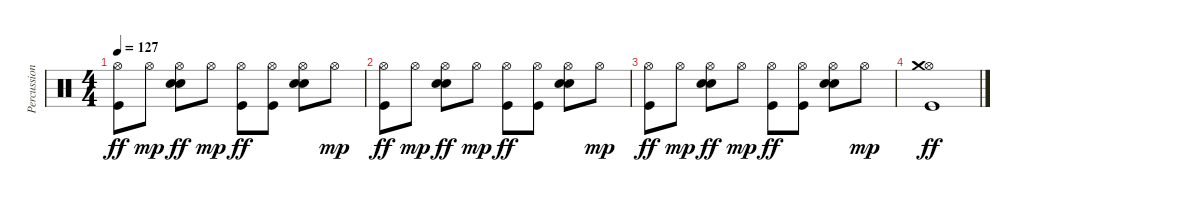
\track ("Percussions" "Percussion") {instrument percussion}
\staff {score}
\articulation defaults
\ts (4 4)
\tempo 127
\clef neutral
\ks c
("Hi-Hat (open)" "Kick (hit)").8{dy ff} "Hi-Hat (open)".8{dy mp} ("Hi-Hat (open)" "Snare (hit) 2" "Electric Snare (hit)").8{dy ff} "Hi-Hat (open)".8{dy mp} ("Hi-Hat (open)" "Kick (hit)").8{dy ff} ("Hi-Hat (open)" "Kick (hit)").8 ("Hi-Hat (open)" "Snare (hit) 2" "Electric Snare (hit)").8 "Hi-Hat (open)".8{dy mp} |
("Hi-Hat (open)" "Kick (hit)").8{dy ff} "Hi-Hat (open)".8{dy mp} ("Hi-Hat (open)" "Snare (hit) 2" "Electric Snare (hit)").8{dy ff} "Hi-Hat (open)".8{dy mp} ("Hi-Hat (open)" "Kick (hit)").8{dy ff} ("Hi-Hat (open)" "Kick (hit)").8 ("Hi-Hat (open)" "Snare (hit) 2" "Electric Snare (hit)").8 "Hi-Hat (open)".8{dy mp} |
("Hi-Hat (open)" "Kick (hit)").8{dy ff} "Hi-Hat (open)".8{dy mp} ("Hi-Hat (open)" "Snare (hit) 2" "Electric Snare (hit)").8{dy ff} "Hi-Hat (open)".8{dy mp} ("Hi-Hat (open)" "Kick (hit)").8{dy ff} ("Hi-Hat (open)" "Kick (hit)").8 ("Hi-Hat (open)" "Snare (hit) 2" "Electric Snare (hit)").8 "Hi-Hat (open)".8{dy mp} |
("Hi-Hat (open)" "Crash medium (hit)" "Kick (hit)").1{dy ff}
